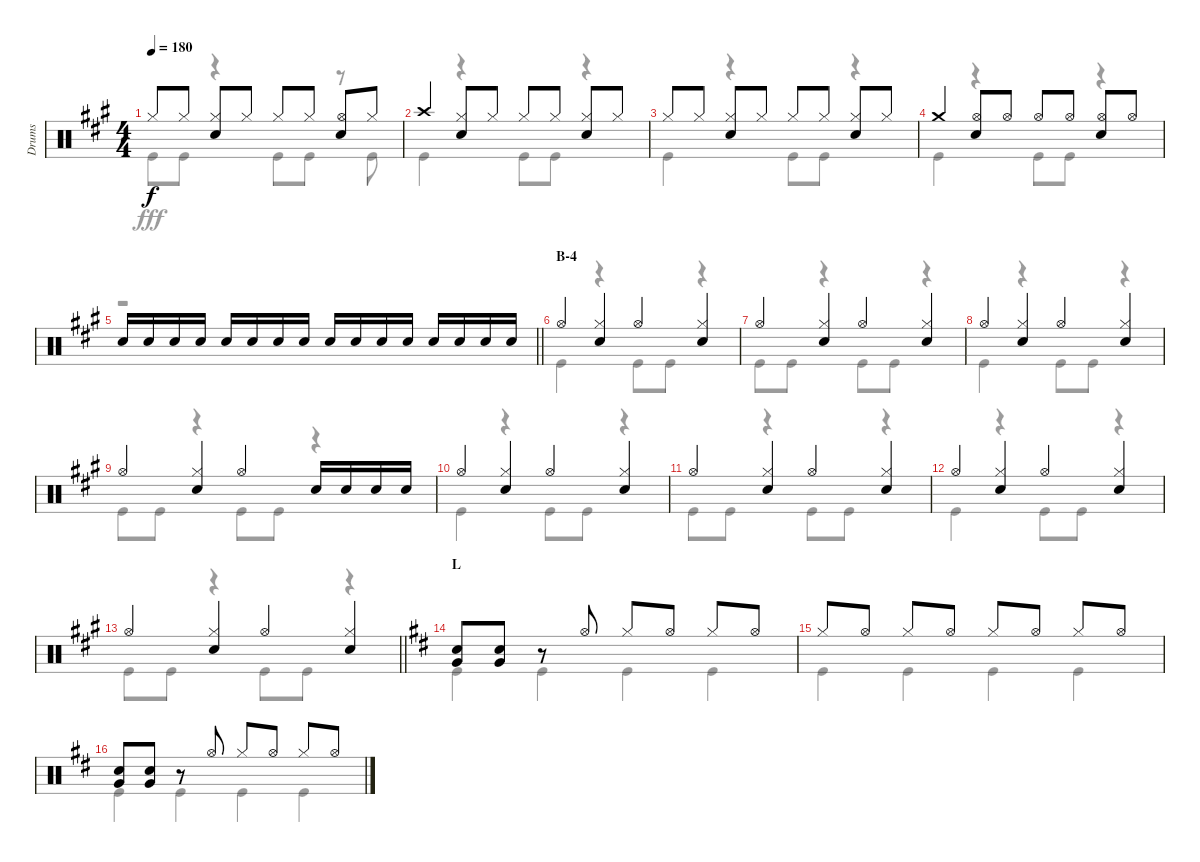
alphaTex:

\track ("Drums" "Drums") {instrument percussion}
\staff {score}
\articulation defaults
\voice
\ts (4 4)
\tempo 180
\clef neutral
\ks a "Hi-Hat (closed)".8{dy f} "Hi-Hat (closed)".8
("Hi-Hat (closed)" "Snare (hit) 2").8 "Hi-Hat (closed)".8 "Hi-Hat (closed)".8 "Hi-Hat (closed)".8 ("Hi-Hat (open)" "Snare (hit) 2").8 "Hi-Hat (closed)".8 |
"Crash high (hit)".4 ("Hi-Hat (closed)" "Snare (hit) 2").8 "Hi-Hat (closed)".8 "Hi-Hat (closed)".8 "Hi-Hat (closed)".8 ("Hi-Hat (closed)" "Snare (hit) 2").8 "Hi-Hat (closed)".8 |
"Hi-Hat (closed)".8 "Hi-Hat (closed)".8 ("Hi-Hat (closed)" "Snare (hit) 2").8 "Hi-Hat (closed)".8 "Hi-Hat (closed)".8 "Hi-Hat (closed)".8 ("Hi-Hat (closed)" "Snare (hit) 2").8 "Hi-Hat (closed)".8 |
"Crash medium (hit)".4 ("Hi-Hat (open)" "Snare (hit) 2").8 "Hi-Hat (open)".8 "Hi-Hat (open)".8 "Hi-Hat (open)".8 ("Hi-Hat (open)" "Snare (hit) 2").8 "Hi-Hat (open)".8 |
\barLineRight lightlight "Snare (hit) 2".16 "Snare (hit) 2".16 "Snare (hit) 2".16 "Snare (hit) 2".16 "Snare (hit) 2".16 "Snare (hit) 2".16 "Snare (hit) 2".16 "Snare (hit) 2".16 "Snare (hit) 2".16 "Snare (hit) 2".16 "Snare (hit) 2".16 "Snare (hit) 2".16 "Snare (hit) 2".16 "Snare (hit) 2".16 "Snare (hit) 2".16 "Snare (hit) 2".16
|
\section ("" "B-4")
"Hi-Hat (open)".4 ("Hi-Hat (closed)" "Snare (hit) 2").4 "Hi-Hat (open)".4 ("Hi-Hat (closed)" "Snare (hit) 2").4 |
"Hi-Hat (open)".4 ("Hi-Hat (closed)" "Snare (hit) 2").4 "Hi-Hat (open)".4 ("Hi-Hat (closed)" "Snare (hit) 2").4 |
"Hi-Hat (open)".4 ("Hi-Hat (closed)" "Snare (hit) 2").4 "Hi-Hat (open)".4 ("Hi-Hat (closed)" "Snare (hit) 2").4 |
"Hi-Hat (open)".4 ("Hi-Hat (closed)" "Snare (hit) 2").4 "Hi-Hat (open)".4 "Snare (hit) 2".16 "Snare (hit) 2".16 "Snare (hit) 2".16 "Snare (hit) 2".16 |
"Hi-Hat (open)".4 ("Hi-Hat (closed)" "Snare (hit) 2").4 "Hi-Hat (open)".4 ("Hi-Hat (closed)" "Snare (hit) 2").4 |
"Hi-Hat (open)".4 ("Hi-Hat (closed)" "Snare (hit) 2").4 "Hi-Hat (open)".4 ("Hi-Hat (closed)" "Snare (hit) 2").4 |
"Hi-Hat (open)".4 ("Hi-Hat (closed)" "Snare (hit) 2").4 "Hi-Hat (open)".4 ("Hi-Hat (closed)" "Snare (hit) 2").4 |
\barLineRight lightlight "Hi-Hat (open)".4
("Hi-Hat (closed)" "Snare (hit) 2").4 "Hi-Hat (open)".4 ("Hi-Hat (closed)" "Snare (hit) 2").4 |
\section ("" "L")
\ks d
("Snare (hit) 2" "Very Low Tom (hit)").8 ("Snare (hit) 2" "Very Low Tom (hit)").8 r.8 "Hi-Hat (open)".8 "Hi-Hat (closed)".8 "Hi-Hat (open)".8 "Hi-Hat (closed)".8 "Hi-Hat (open)".8 |
"Hi-Hat (closed)".8 "Hi-Hat (open)".8 "Hi-Hat (closed)".8 "Hi-Hat (open)".8 "Hi-Hat (closed)".8 "Hi-Hat (open)".8 "Hi-Hat (closed)".8 "Hi-Hat (open)".8 |
("Snare (hit) 2" "Very Low Tom (hit)").8 ("Snare (hit) 2" "Very Low Tom (hit)").8 r.8 "Hi-Hat (open)".8 "Hi-Hat (closed)".8 "Hi-Hat (open)".8 "Hi-Hat (closed)".8 "Hi-Hat (open)".8
\voice
\clef neutral
\ottava regular
\simile none
\ks a "Kick (hit)".8{dy fff} "Kick (hit)".8
r.4 "Kick (hit)".8 "Kick (hit)".8 r.8 "Kick (hit)".8 |
"Kick (hit)".4 r.4 "Kick (hit)".8 "Kick (hit)".8 r.4 |
"Kick (hit)".4 r.4 "Kick (hit)".8 "Kick (hit)".8 r.4 |
"Kick (hit)".4 r.4 "Kick (hit)".8 "Kick (hit)".8 r.4 |
\barLineRight lightlight
r.1 |
"Kick (hit)".4 r.4 "Kick (hit)".8 "Kick (hit)".8 r.4 |
"Kick (hit)".8 "Kick (hit)".8 r.4 "Kick (hit)".8 "Kick (hit)".8 r.4 |
"Kick (hit)".4 r.4 "Kick (hit)".8 "Kick (hit)".8 r.4 |
"Kick (hit)".8 "Kick (hit)".8 r.4 "Kick (hit)".8 "Kick (hit)".8 r.4 |
"Kick (hit)".4 r.4 "Kick (hit)".8 "Kick (hit)".8 r.4 |
"Kick (hit)".8 "Kick (hit)".8 r.4 "Kick (hit)".8 "Kick (hit)".8 r.4 |
"Kick (hit)".4 r.4 "Kick (hit)".8 "Kick (hit)".8 r.4 |
\barLineRight lightlight "Kick (hit)".8 "Kick (hit)".8
r.4 "Kick (hit)".8 "Kick (hit)".8 r.4 |
\ks d "Kick (hit)".4 "Kick (hit)".4 "Kick (hit)".4 "Kick (hit)".4
|
"Kick (hit)".4 "Kick (hit)".4 "Kick (hit)".4 "Kick (hit)".4 |
"Kick (hit)".4 "Kick (hit)".4 "Kick (hit)".4 "Kick (hit)".4
